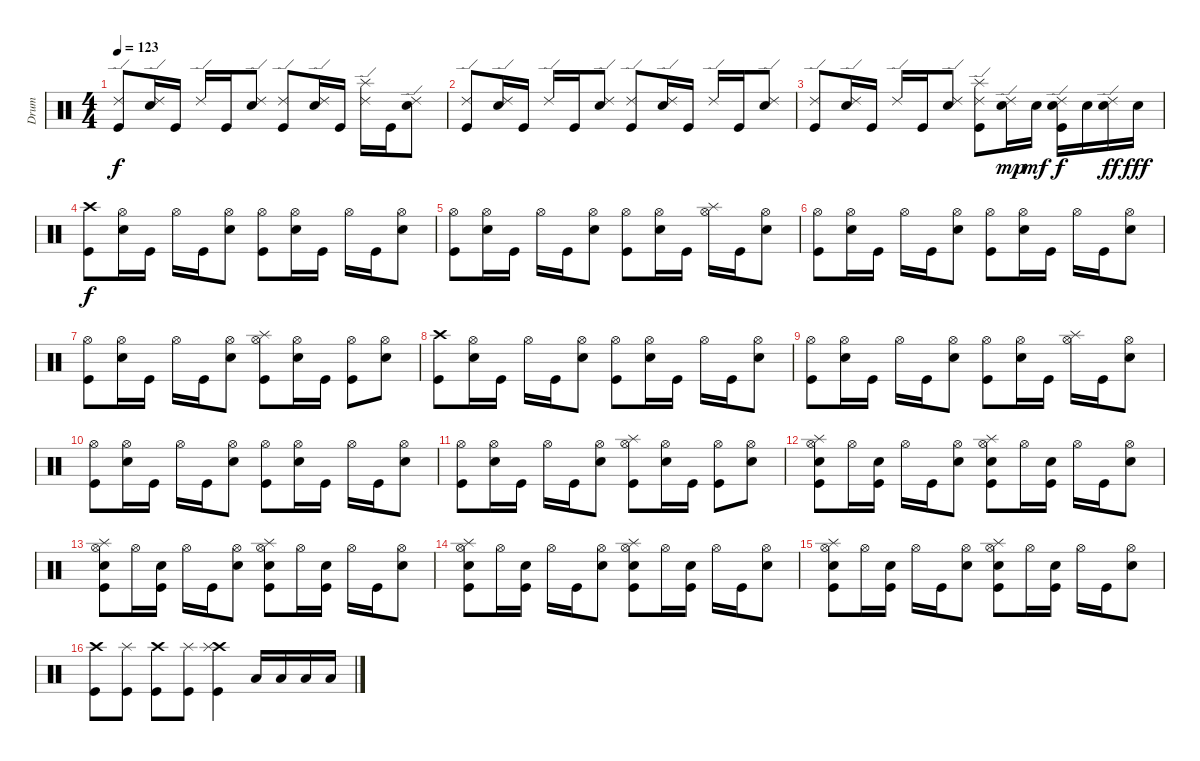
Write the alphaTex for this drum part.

\track ("Drum" "Drum") {instrument percussion}
\staff {score}
\articulation defaults
\ts (4 4)
\tempo 123
\clef neutral
\ks c
("Ride (edge) 2" "Kick (hit)").8{dy f} ("Ride (edge) 2" "Snare (hit) 2").16 "Kick (hit)".16 "Ride (edge) 2".16 "Kick (hit)".16 ("Ride (edge) 2" "Snare (hit) 2").8 ("Ride (edge) 2" "Kick (hit)").8 ("Ride (edge) 2" "Snare (hit) 2").16 "Kick (hit)".16 ("Ride (edge) 2" "Splash (hit)").16 "Kick (hit)".16 ("Ride (edge) 2" "Snare (hit) 2").8 |
("Ride (edge) 2" "Kick (hit)").8 ("Ride (edge) 2" "Snare (hit) 2").16 "Kick (hit)".16 "Ride (edge) 2".16 "Kick (hit)".16 ("Ride (edge) 2" "Snare (hit) 2").8 ("Ride (edge) 2" "Kick (hit)").8 ("Ride (edge) 2" "Snare (hit) 2").16 "Kick (hit)".16 "Ride (edge) 2".16 "Kick (hit)".16 ("Ride (edge) 2" "Snare (hit) 2").8 |
("Ride (edge) 2" "Kick (hit)").8 ("Ride (edge) 2" "Snare (hit) 2").16 "Kick (hit)".16 "Ride (edge) 2".16 "Kick (hit)".16 ("Ride (edge) 2" "Snare (hit) 2").8 ("Ride (edge) 2" "Splash (hit)" "Kick (hit)").8 ("Ride (edge) 2" "Snare (hit) 2").16{dy mp} "Snare (hit) 2".16{dy mf} ("Ride (edge) 2" "Snare (hit) 2" "Kick (hit)").16{dy f} "Snare (hit) 2".16 ("Ride (edge) 2" "Snare (hit) 2").16{dy ff} "Snare (hit) 2".16{dy fff} |
("Crash high (hit)" "Kick (hit)").8{dy f} ("Hi-Hat (open)" "Snare (hit) 2").16 "Kick (hit)".16 "Hi-Hat (open)".16 "Kick (hit)".16 ("Hi-Hat (open)" "Snare (hit) 2").8 ("Hi-Hat (open)" "Kick (hit)").8 ("Hi-Hat (open)" "Snare (hit) 2").16 "Kick (hit)".16 "Hi-Hat (open)".16 "Kick (hit)".16 ("Hi-Hat (open)" "Snare (hit) 2").8 |
("Hi-Hat (open)" "Kick (hit)").8 ("Hi-Hat (open)" "Snare (hit) 2").16 "Kick (hit)".16 "Hi-Hat (open)".16 "Kick (hit)".16 ("Hi-Hat (open)" "Snare (hit) 2").8 ("Hi-Hat (open)" "Kick (hit)").8 ("Hi-Hat (open)" "Snare (hit) 2").16 "Kick (hit)".16 ("Hi-Hat (open)" "Splash (hit)").16 "Kick (hit)".16 ("Hi-Hat (open)" "Snare (hit) 2").8 |
("Hi-Hat (open)" "Kick (hit)").8 ("Hi-Hat (open)" "Snare (hit) 2").16 "Kick (hit)".16 "Hi-Hat (open)".16 "Kick (hit)".16 ("Hi-Hat (open)" "Snare (hit) 2").8 ("Hi-Hat (open)" "Kick (hit)").8 ("Hi-Hat (open)" "Snare (hit) 2").16 "Kick (hit)".16 "Hi-Hat (open)".16 "Kick (hit)".16 ("Hi-Hat (open)" "Snare (hit) 2").8 |
("Hi-Hat (open)" "Kick (hit)").8 ("Hi-Hat (open)" "Snare (hit) 2").16 "Kick (hit)".16 "Hi-Hat (open)".16 "Kick (hit)".16 ("Hi-Hat (open)" "Snare (hit) 2").8 ("Hi-Hat (open)" "Splash (hit)" "Kick (hit)").8 ("Hi-Hat (open)" "Snare (hit) 2").16 "Kick (hit)".16 ("Hi-Hat (open)" "Kick (hit)").8 ("Hi-Hat (open)" "Snare (hit) 2").8 |
("Crash high (hit)" "Kick (hit)").8 ("Hi-Hat (open)" "Snare (hit) 2").16 "Kick (hit)".16 "Hi-Hat (open)".16 "Kick (hit)".16 ("Hi-Hat (open)" "Snare (hit) 2").8 ("Hi-Hat (open)" "Kick (hit)").8 ("Hi-Hat (open)" "Snare (hit) 2").16 "Kick (hit)".16 "Hi-Hat (open)".16 "Kick (hit)".16 ("Hi-Hat (open)" "Snare (hit) 2").8 |
("Hi-Hat (open)" "Kick (hit)").8 ("Hi-Hat (open)" "Snare (hit) 2").16 "Kick (hit)".16 "Hi-Hat (open)".16 "Kick (hit)".16 ("Hi-Hat (open)" "Snare (hit) 2").8 ("Hi-Hat (open)" "Kick (hit)").8 ("Hi-Hat (open)" "Snare (hit) 2").16 "Kick (hit)".16 ("Hi-Hat (open)" "Splash (hit)").16 "Kick (hit)".16 ("Hi-Hat (open)" "Snare (hit) 2").8 |
("Hi-Hat (open)" "Kick (hit)").8 ("Hi-Hat (open)" "Snare (hit) 2").16 "Kick (hit)".16 "Hi-Hat (open)".16 "Kick (hit)".16 ("Hi-Hat (open)" "Snare (hit) 2").8 ("Hi-Hat (open)" "Kick (hit)").8 ("Hi-Hat (open)" "Snare (hit) 2").16 "Kick (hit)".16 "Hi-Hat (open)".16 "Kick (hit)".16 ("Hi-Hat (open)" "Snare (hit) 2").8 |
("Hi-Hat (open)" "Kick (hit)").8 ("Hi-Hat (open)" "Snare (hit) 2").16 "Kick (hit)".16 "Hi-Hat (open)".16 "Kick (hit)".16 ("Hi-Hat (open)" "Snare (hit) 2").8 ("Hi-Hat (open)" "Splash (hit)" "Kick (hit)").8 ("Hi-Hat (open)" "Snare (hit) 2").16 "Kick (hit)".16 ("Hi-Hat (open)" "Kick (hit)").8 ("Hi-Hat (open)" "Snare (hit) 2").8 |
("Hi-Hat (open)" "Splash (hit)" "Snare (hit) 2" "Kick (hit)").8 "Hi-Hat (open)".16 ("Snare (hit) 2" "Kick (hit)").16 "Hi-Hat (open)".16 "Kick (hit)".16 ("Hi-Hat (open)" "Snare (hit) 2").8 ("Hi-Hat (open)" "Splash (hit)" "Snare (hit) 2" "Kick (hit)").8 "Hi-Hat (open)".16 ("Snare (hit) 2" "Kick (hit)").16 "Hi-Hat (open)".16 "Kick (hit)".16 ("Hi-Hat (open)" "Snare (hit) 2").8 |
("Hi-Hat (open)" "Splash (hit)" "Snare (hit) 2" "Kick (hit)").8 "Hi-Hat (open)".16 ("Snare (hit) 2" "Kick (hit)").16 "Hi-Hat (open)".16 "Kick (hit)".16 ("Hi-Hat (open)" "Snare (hit) 2").8 ("Hi-Hat (open)" "Splash (hit)" "Snare (hit) 2" "Kick (hit)").8 "Hi-Hat (open)".16 ("Snare (hit) 2" "Kick (hit)").16 "Hi-Hat (open)".16 "Kick (hit)".16 ("Hi-Hat (open)" "Snare (hit) 2").8 |
("Hi-Hat (open)" "Splash (hit)" "Snare (hit) 2" "Kick (hit)").8 "Hi-Hat (open)".16 ("Snare (hit) 2" "Kick (hit)").16 "Hi-Hat (open)".16 "Kick (hit)".16 ("Hi-Hat (open)" "Snare (hit) 2").8 ("Hi-Hat (open)" "Splash (hit)" "Snare (hit) 2" "Kick (hit)").8 "Hi-Hat (open)".16 ("Snare (hit) 2" "Kick (hit)").16 "Hi-Hat (open)".16 "Kick (hit)".16 ("Hi-Hat (open)" "Snare (hit) 2").8 |
("Hi-Hat (open)" "Splash (hit)" "Snare (hit) 2" "Kick (hit)").8 "Hi-Hat (open)".16 ("Snare (hit) 2" "Kick (hit)").16 "Hi-Hat (open)".16 "Kick (hit)".16 ("Hi-Hat (open)" "Snare (hit) 2").8 ("Hi-Hat (open)" "Splash (hit)" "Snare (hit) 2" "Kick (hit)").8 "Hi-Hat (open)".16 ("Snare (hit) 2" "Kick (hit)").16 "Hi-Hat (open)".16 "Kick (hit)".16 ("Hi-Hat (open)" "Snare (hit) 2").8 |
("Crash high (hit)" "Kick (hit)").8 ("Splash (hit)" "Kick (hit)").8 ("Crash high (hit)" "Kick (hit)").8 ("Splash (hit)" "Kick (hit)").8 ("Crash high (hit)" "Splash (hit)" "Kick (hit)").4 "Low Tom (hit)".16 "Low Tom (hit)".16 "Low Tom (hit)".16 "Low Tom (hit)".16
